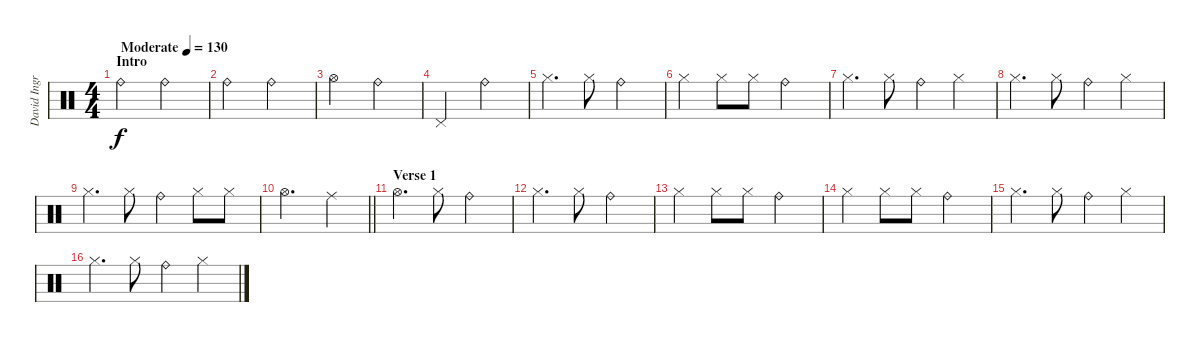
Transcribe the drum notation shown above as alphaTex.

\track ("David Ingraham" "David Ingr") {instrument percussion}
\staff {score}
\articulation defaults
\ts (4 4)
\section ("" "Intro")
\tempo (130 "Moderate")
\clef neutral
\ks c "Ride (bell)".2{dy f volume 5} "Ride (bell)".2
|
"Ride (bell)".2 "Ride (bell)".2 |
"Hi-Hat (open)".2 "Ride (bell)".2 |
"Pedal Hi-Hat (hit)".2 "Ride (bell)".2 |
"Hi-Hat (closed)".4{d} "Hi-Hat (closed)".8 "Ride (bell)".2 |
"Hi-Hat (closed)".4 "Hi-Hat (closed)".8 "Hi-Hat (closed)".8 "Ride (bell)".2 |
"Hi-Hat (closed)".4{d} "Hi-Hat (closed)".8 "Ride (bell)".4 "Hi-Hat (closed)".4 |
"Hi-Hat (closed)".4{d} "Hi-Hat (closed)".8 "Ride (bell)".4 "Hi-Hat (closed)".4 |
"Hi-Hat (closed)".4{d} "Hi-Hat (closed)".8 "Ride (bell)".4 "Hi-Hat (closed)".8 "Hi-Hat (closed)".8 |
\barLineRight lightlight "Hi-Hat (open)".2{d} "Ride (middle)".4
|
\section ("" "Verse 1")
"Hi-Hat (open)".4{d} "Hi-Hat (closed)".8 "Ride (bell)".2 |
"Hi-Hat (closed)".4{d} "Hi-Hat (closed)".8 "Ride (bell)".2 |
"Hi-Hat (closed)".4 "Hi-Hat (closed)".8 "Hi-Hat (closed)".8 "Ride (bell)".2 |
"Hi-Hat (closed)".4 "Hi-Hat (closed)".8 "Hi-Hat (closed)".8 "Ride (bell)".2 |
"Hi-Hat (closed)".4{d} "Hi-Hat (closed)".8 "Ride (bell)".4 "Hi-Hat (closed)".4 |
"Hi-Hat (closed)".4{d} "Hi-Hat (closed)".8 "Ride (bell)".4 "Hi-Hat (closed)".4
